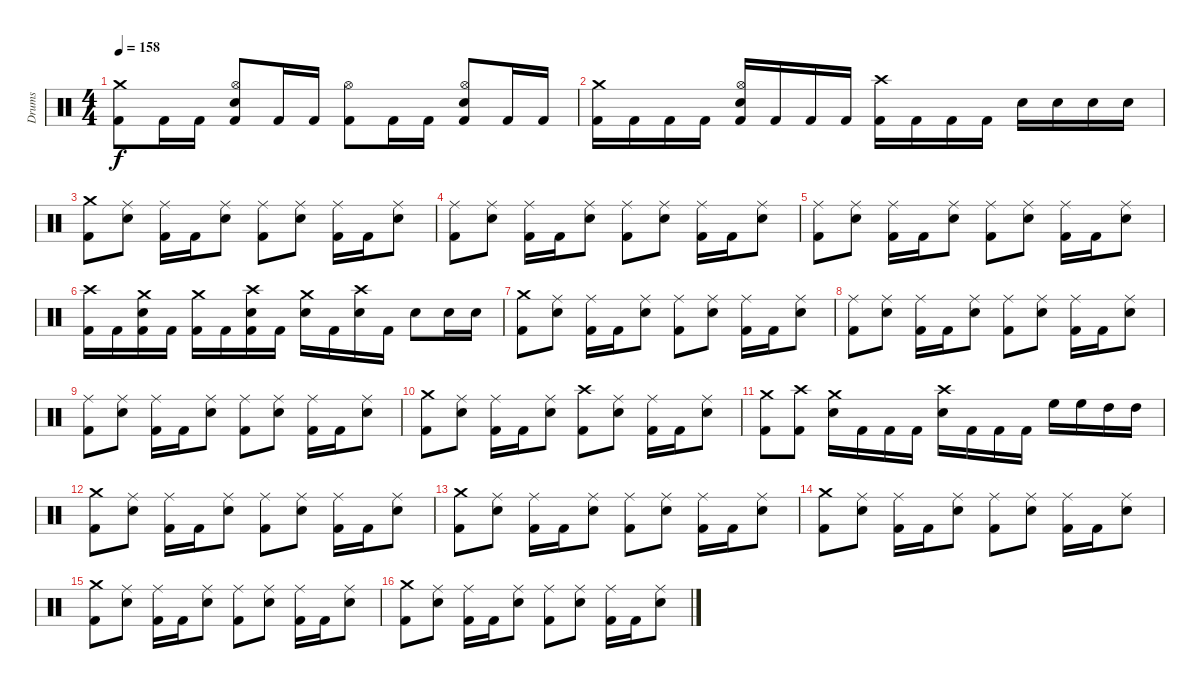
\track ("Drums" "Drums") {instrument percussion}
\staff {score}
\articulation defaults
\ts (4 4)
\tempo 158
\clef neutral
\ks c
("Crash medium (hit)" "Kick (hit) 2").8{dy f} "Kick (hit) 2".16 "Kick (hit) 2".16 ("Hi-Hat (open)" "Electric Snare (hit)" "Kick (hit) 2").8 "Kick (hit) 2".16 "Kick (hit) 2".16 ("Hi-Hat (open)" "Kick (hit) 2").8 "Kick (hit) 2".16 "Kick (hit) 2".16 ("Hi-Hat (open)" "Electric Snare (hit)" "Kick (hit) 2").8 "Kick (hit) 2".16 "Kick (hit) 2".16 |
("Crash medium (hit)" "Kick (hit) 2").16 "Kick (hit) 2".16 "Kick (hit) 2".16 "Kick (hit) 2".16 ("Hi-Hat (open)" "Electric Snare (hit)" "Kick (hit) 2").16 "Kick (hit) 2".16 "Kick (hit) 2".16 "Kick (hit) 2".16 ("Crash high (hit)" "Kick (hit) 2").16 "Kick (hit) 2".16 "Kick (hit) 2".16 "Kick (hit) 2".16 "Electric Snare (hit)".16 "Electric Snare (hit)".16 "Electric Snare (hit)".16 "Electric Snare (hit)".16 |
("Crash medium (hit)" "Kick (hit) 2").8 ("Ride (middle)" "Electric Snare (hit)").8 ("Ride (middle)" "Kick (hit) 2").16 "Kick (hit) 2".16 ("Ride (middle)" "Electric Snare (hit)").8 ("Ride (middle)" "Kick (hit) 2").8 ("Ride (middle)" "Electric Snare (hit)").8 ("Ride (middle)" "Kick (hit) 2").16 "Kick (hit) 2".16 ("Ride (middle)" "Electric Snare (hit)").8 |
("Ride (middle)" "Kick (hit) 2").8 ("Ride (middle)" "Electric Snare (hit)").8 ("Ride (middle)" "Kick (hit) 2").16 "Kick (hit) 2".16 ("Ride (middle)" "Electric Snare (hit)").8 ("Ride (middle)" "Kick (hit) 2").8 ("Ride (middle)" "Electric Snare (hit)").8 ("Ride (middle)" "Kick (hit) 2").16 "Kick (hit) 2".16 ("Ride (middle)" "Electric Snare (hit)").8 |
("Ride (middle)" "Kick (hit) 2").8 ("Ride (middle)" "Electric Snare (hit)").8 ("Ride (middle)" "Kick (hit) 2").16 "Kick (hit) 2".16 ("Ride (middle)" "Electric Snare (hit)").8 ("Ride (middle)" "Kick (hit) 2").8 ("Ride (middle)" "Electric Snare (hit)").8 ("Ride (middle)" "Kick (hit) 2").16 "Kick (hit) 2".16 ("Ride (middle)" "Electric Snare (hit)").8 |
("Crash high (hit)" "Kick (hit) 2").16 "Kick (hit) 2".16 ("Crash medium (hit)" "Electric Snare (hit)" "Kick (hit) 2").16 "Kick (hit) 2".16 ("Crash medium (hit)" "Kick (hit) 2").16 "Kick (hit) 2".16 ("Crash high (hit)" "Electric Snare (hit)" "Kick (hit) 2").16 "Kick (hit) 2".16 ("Crash medium (hit)" "Electric Snare (hit)").16 "Kick (hit) 2".16 ("Crash high (hit)" "Electric Snare (hit)").16 "Kick (hit) 2".16 "Electric Snare (hit)".8 "Electric Snare (hit)".16 "Electric Snare (hit)".16 |
("Crash medium (hit)" "Kick (hit) 2").8 ("Ride (middle)" "Electric Snare (hit)").8 ("Ride (middle)" "Kick (hit) 2").16 "Kick (hit) 2".16 ("Ride (middle)" "Electric Snare (hit)").8 ("Ride (middle)" "Kick (hit) 2").8 ("Ride (middle)" "Electric Snare (hit)").8 ("Ride (middle)" "Kick (hit) 2").16 "Kick (hit) 2".16 ("Ride (middle)" "Electric Snare (hit)").8 |
("Ride (middle)" "Kick (hit) 2").8 ("Ride (middle)" "Electric Snare (hit)").8 ("Ride (middle)" "Kick (hit) 2").16 "Kick (hit) 2".16 ("Ride (middle)" "Electric Snare (hit)").8 ("Ride (middle)" "Kick (hit) 2").8 ("Ride (middle)" "Electric Snare (hit)").8 ("Ride (middle)" "Kick (hit) 2").16 "Kick (hit) 2".16 ("Ride (middle)" "Electric Snare (hit)").8 |
("Ride (middle)" "Kick (hit) 2").8 ("Ride (middle)" "Electric Snare (hit)").8 ("Ride (middle)" "Kick (hit) 2").16 "Kick (hit) 2".16 ("Ride (middle)" "Electric Snare (hit)").8 ("Ride (middle)" "Kick (hit) 2").8 ("Ride (middle)" "Electric Snare (hit)").8 ("Ride (middle)" "Kick (hit) 2").16 "Kick (hit) 2".16 ("Ride (middle)" "Electric Snare (hit)").8 |
("Crash medium (hit)" "Kick (hit) 2").8 ("Ride (middle)" "Electric Snare (hit)").8 ("Ride (middle)" "Kick (hit) 2").16 "Kick (hit) 2".16 ("Ride (middle)" "Electric Snare (hit)").8 ("Crash high (hit)" "Kick (hit) 2").8 ("Ride (middle)" "Electric Snare (hit)").8 ("Ride (middle)" "Kick (hit) 2").16 "Kick (hit) 2".16 ("Ride (middle)" "Electric Snare (hit)").8 |
("Crash medium (hit)" "Kick (hit) 2").8 ("Crash high (hit)" "Kick (hit) 2").8 ("Crash medium (hit)" "Electric Snare (hit)").16 "Kick (hit) 2".16 "Kick (hit) 2".16 "Kick (hit) 2".16 ("Crash high (hit)" "Electric Snare (hit)").16 "Kick (hit) 2".16 "Kick (hit) 2".16 "Kick (hit) 2".16 "High Floor Tom (hit)".16 "High Floor Tom (hit)".16 "High Tom (hit)".16 "High Tom (hit)".16 |
("Crash medium (hit)" "Kick (hit) 2").8 ("Ride (middle)" "Electric Snare (hit)").8 ("Ride (middle)" "Kick (hit) 2").16 "Kick (hit) 2".16 ("Ride (middle)" "Electric Snare (hit)").8 ("Ride (middle)" "Kick (hit) 2").8 ("Ride (middle)" "Electric Snare (hit)").8 ("Ride (middle)" "Kick (hit) 2").16 "Kick (hit) 2".16 ("Ride (middle)" "Electric Snare (hit)").8 |
("Crash medium (hit)" "Kick (hit) 2").8 ("Ride (middle)" "Electric Snare (hit)").8 ("Ride (middle)" "Kick (hit) 2").16 "Kick (hit) 2".16 ("Ride (middle)" "Electric Snare (hit)").8 ("Ride (middle)" "Kick (hit) 2").8 ("Ride (middle)" "Electric Snare (hit)").8 ("Ride (middle)" "Kick (hit) 2").16 "Kick (hit) 2".16 ("Ride (middle)" "Electric Snare (hit)").8 |
("Crash medium (hit)" "Kick (hit) 2").8 ("Ride (middle)" "Electric Snare (hit)").8 ("Ride (middle)" "Kick (hit) 2").16 "Kick (hit) 2".16 ("Ride (middle)" "Electric Snare (hit)").8 ("Ride (middle)" "Kick (hit) 2").8 ("Ride (middle)" "Electric Snare (hit)").8 ("Ride (middle)" "Kick (hit) 2").16 "Kick (hit) 2".16 ("Ride (middle)" "Electric Snare (hit)").8 |
("Crash medium (hit)" "Kick (hit) 2").8 ("Ride (middle)" "Electric Snare (hit)").8 ("Ride (middle)" "Kick (hit) 2").16 "Kick (hit) 2".16 ("Ride (middle)" "Electric Snare (hit)").8 ("Ride (middle)" "Kick (hit) 2").8 ("Ride (middle)" "Electric Snare (hit)").8 ("Ride (middle)" "Kick (hit) 2").16 "Kick (hit) 2".16 ("Ride (middle)" "Electric Snare (hit)").8 |
("Crash medium (hit)" "Kick (hit) 2").8 ("Ride (middle)" "Electric Snare (hit)").8 ("Ride (middle)" "Kick (hit) 2").16 "Kick (hit) 2".16 ("Ride (middle)" "Electric Snare (hit)").8 ("Ride (middle)" "Kick (hit) 2").8 ("Ride (middle)" "Electric Snare (hit)").8 ("Ride (middle)" "Kick (hit) 2").16 "Kick (hit) 2".16 ("Ride (middle)" "Electric Snare (hit)").8
